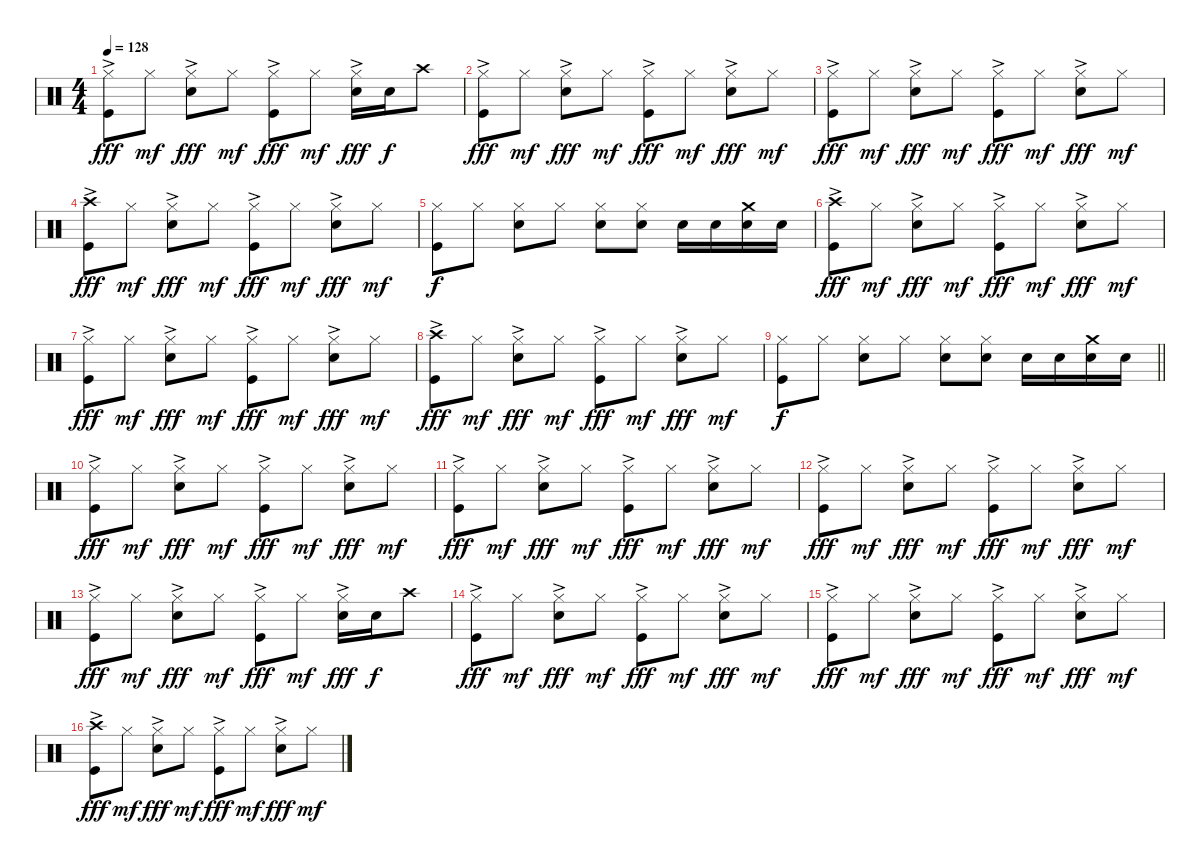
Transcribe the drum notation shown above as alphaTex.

\track "" {instrument percussion}
\staff {score}
\articulation defaults
\ts (4 4)
\tempo 128
\clef neutral
\ks c
("Hi-Hat (closed)"{ac} "Kick (hit)").8{dy fff} "Hi-Hat (closed)".8{dy mf} ("Hi-Hat (closed)"{ac} "Electric Snare (hit)").8{dy fff} "Hi-Hat (closed)".8{dy mf} ("Hi-Hat (closed)"{ac} "Kick (hit)").8{dy fff} "Hi-Hat (closed)".8{dy mf} ("Hi-Hat (closed)"{ac} "Electric Snare (hit)").16{dy fff} "Electric Snare (hit)".16{dy f} "Crash high (hit)".8 |
("Hi-Hat (closed)"{ac} "Kick (hit)").8{dy fff} "Hi-Hat (closed)".8{dy mf} ("Hi-Hat (closed)"{ac} "Electric Snare (hit)").8{dy fff} "Hi-Hat (closed)".8{dy mf} ("Hi-Hat (closed)"{ac} "Kick (hit)").8{dy fff} "Hi-Hat (closed)".8{dy mf} ("Hi-Hat (closed)"{ac} "Electric Snare (hit)").8{dy fff} "Hi-Hat (closed)".8{dy mf} |
("Hi-Hat (closed)"{ac} "Kick (hit)").8{dy fff} "Hi-Hat (closed)".8{dy mf} ("Hi-Hat (closed)"{ac} "Electric Snare (hit)").8{dy fff} "Hi-Hat (closed)".8{dy mf} ("Hi-Hat (closed)"{ac} "Kick (hit)").8{dy fff} "Hi-Hat (closed)".8{dy mf} ("Hi-Hat (closed)"{ac} "Electric Snare (hit)").8{dy fff} "Hi-Hat (closed)".8{dy mf} |
("Crash high (hit)"{ac} "Kick (hit)").8{dy fff} "Hi-Hat (closed)".8{dy mf} ("Hi-Hat (closed)"{ac} "Electric Snare (hit)").8{dy fff} "Hi-Hat (closed)".8{dy mf} ("Hi-Hat (closed)"{ac} "Kick (hit)").8{dy fff} "Hi-Hat (closed)".8{dy mf} ("Hi-Hat (closed)"{ac} "Electric Snare (hit)").8{dy fff} "Hi-Hat (closed)".8{dy mf} |
("Hi-Hat (closed)" "Kick (hit)").8{dy f} "Hi-Hat (closed)".8 ("Hi-Hat (closed)" "Electric Snare (hit)").8 "Hi-Hat (closed)".8 ("Hi-Hat (closed)" "Electric Snare (hit)").8 ("Hi-Hat (closed)" "Electric Snare (hit)").8 "Electric Snare (hit)".16 "Electric Snare (hit)".16 ("Crash medium (hit)" "Electric Snare (hit)").16 "Electric Snare (hit)".16 |
("Crash high (hit)"{ac} "Kick (hit)").8{dy fff} "Hi-Hat (closed)".8{dy mf} ("Hi-Hat (closed)"{ac} "Electric Snare (hit)").8{dy fff} "Hi-Hat (closed)".8{dy mf} ("Hi-Hat (closed)"{ac} "Kick (hit)").8{dy fff} "Hi-Hat (closed)".8{dy mf} ("Hi-Hat (closed)"{ac} "Electric Snare (hit)").8{dy fff} "Hi-Hat (closed)".8{dy mf} |
("Hi-Hat (closed)"{ac} "Kick (hit)").8{dy fff} "Hi-Hat (closed)".8{dy mf} ("Hi-Hat (closed)"{ac} "Electric Snare (hit)").8{dy fff} "Hi-Hat (closed)".8{dy mf} ("Hi-Hat (closed)"{ac} "Kick (hit)").8{dy fff} "Hi-Hat (closed)".8{dy mf} ("Hi-Hat (closed)"{ac} "Electric Snare (hit)").8{dy fff} "Hi-Hat (closed)".8{dy mf} |
("Crash high (hit)"{ac} "Kick (hit)").8{dy fff} "Hi-Hat (closed)".8{dy mf} ("Hi-Hat (closed)"{ac} "Electric Snare (hit)").8{dy fff} "Hi-Hat (closed)".8{dy mf} ("Hi-Hat (closed)"{ac} "Kick (hit)").8{dy fff} "Hi-Hat (closed)".8{dy mf} ("Hi-Hat (closed)"{ac} "Electric Snare (hit)").8{dy fff} "Hi-Hat (closed)".8{dy mf} |
\barLineRight lightlight
("Hi-Hat (closed)" "Kick (hit)").8{dy f} "Hi-Hat (closed)".8 ("Hi-Hat (closed)" "Electric Snare (hit)").8 "Hi-Hat (closed)".8 ("Hi-Hat (closed)" "Electric Snare (hit)").8 ("Hi-Hat (closed)" "Electric Snare (hit)").8 "Electric Snare (hit)".16 "Electric Snare (hit)".16 ("Crash medium (hit)" "Electric Snare (hit)").16 "Electric Snare (hit)".16 |
("Hi-Hat (closed)"{ac} "Kick (hit)").8{dy fff} "Hi-Hat (closed)".8{dy mf} ("Hi-Hat (closed)"{ac} "Electric Snare (hit)").8{dy fff} "Hi-Hat (closed)".8{dy mf} ("Hi-Hat (closed)"{ac} "Kick (hit)").8{dy fff} "Hi-Hat (closed)".8{dy mf} ("Hi-Hat (closed)"{ac} "Electric Snare (hit)").8{dy fff} "Hi-Hat (closed)".8{dy mf} |
("Hi-Hat (closed)"{ac} "Kick (hit)").8{dy fff} "Hi-Hat (closed)".8{dy mf} ("Hi-Hat (closed)"{ac} "Electric Snare (hit)").8{dy fff} "Hi-Hat (closed)".8{dy mf} ("Hi-Hat (closed)"{ac} "Kick (hit)").8{dy fff} "Hi-Hat (closed)".8{dy mf} ("Hi-Hat (closed)"{ac} "Electric Snare (hit)").8{dy fff} "Hi-Hat (closed)".8{dy mf} |
("Hi-Hat (closed)"{ac} "Kick (hit)").8{dy fff} "Hi-Hat (closed)".8{dy mf} ("Hi-Hat (closed)"{ac} "Electric Snare (hit)").8{dy fff} "Hi-Hat (closed)".8{dy mf} ("Hi-Hat (closed)"{ac} "Kick (hit)").8{dy fff} "Hi-Hat (closed)".8{dy mf} ("Hi-Hat (closed)"{ac} "Electric Snare (hit)").8{dy fff} "Hi-Hat (closed)".8{dy mf} |
("Hi-Hat (closed)"{ac} "Kick (hit)").8{dy fff} "Hi-Hat (closed)".8{dy mf} ("Hi-Hat (closed)"{ac} "Electric Snare (hit)").8{dy fff} "Hi-Hat (closed)".8{dy mf} ("Hi-Hat (closed)"{ac} "Kick (hit)").8{dy fff} "Hi-Hat (closed)".8{dy mf} ("Hi-Hat (closed)"{ac} "Electric Snare (hit)").16{dy fff} "Electric Snare (hit)".16{dy f} "Crash high (hit)".8 |
("Hi-Hat (closed)"{ac} "Kick (hit)").8{dy fff} "Hi-Hat (closed)".8{dy mf} ("Hi-Hat (closed)"{ac} "Electric Snare (hit)").8{dy fff} "Hi-Hat (closed)".8{dy mf} ("Hi-Hat (closed)"{ac} "Kick (hit)").8{dy fff} "Hi-Hat (closed)".8{dy mf} ("Hi-Hat (closed)"{ac} "Electric Snare (hit)").8{dy fff} "Hi-Hat (closed)".8{dy mf} |
("Hi-Hat (closed)"{ac} "Kick (hit)").8{dy fff} "Hi-Hat (closed)".8{dy mf} ("Hi-Hat (closed)"{ac} "Electric Snare (hit)").8{dy fff} "Hi-Hat (closed)".8{dy mf} ("Hi-Hat (closed)"{ac} "Kick (hit)").8{dy fff} "Hi-Hat (closed)".8{dy mf} ("Hi-Hat (closed)"{ac} "Electric Snare (hit)").8{dy fff} "Hi-Hat (closed)".8{dy mf} |
("Crash high (hit)"{ac} "Kick (hit)").8{dy fff} "Hi-Hat (closed)".8{dy mf} ("Hi-Hat (closed)"{ac} "Electric Snare (hit)").8{dy fff} "Hi-Hat (closed)".8{dy mf} ("Hi-Hat (closed)"{ac} "Kick (hit)").8{dy fff} "Hi-Hat (closed)".8{dy mf} ("Hi-Hat (closed)"{ac} "Electric Snare (hit)").8{dy fff} "Hi-Hat (closed)".8{dy mf}
